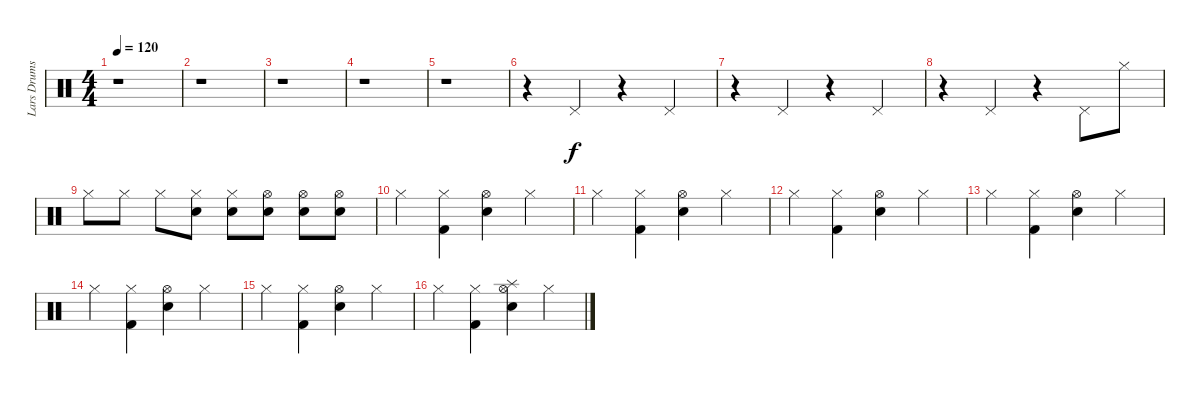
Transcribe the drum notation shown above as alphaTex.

\track ("Lars Drums" "Lars Drums") {instrument percussion}
\staff {score}
\articulation defaults
\ts (4 4)
\tempo 120
\clef neutral
\ks c
r.1{dy f} |
r.1 |
r.1 |
r.1 |
r.1 |
r.4 "Pedal Hi-Hat (hit)".4 r.4 "Pedal Hi-Hat (hit)".4 |
r.4 "Pedal Hi-Hat (hit)".4 r.4 "Pedal Hi-Hat (hit)".4 |
r.4 "Pedal Hi-Hat (hit)".4 r.4 "Pedal Hi-Hat (hit)".8 "Hi-Hat (closed)".8 |
"Hi-Hat (closed)".8 "Hi-Hat (closed)".8 "Hi-Hat (closed)".8 ("Snare (hit) 2" "Hi-Hat (closed)").8 ("Snare (hit) 2" "Hi-Hat (closed)").8 ("Snare (hit) 2" "Hi-Hat (open)").8 ("Snare (hit) 2" "Hi-Hat (open)").8 ("Snare (hit) 2" "Hi-Hat (open)").8 |
"Hi-Hat (closed)".4 ("Hi-Hat (closed)" "Kick (hit) 2").4 ("Snare (hit) 2" "Hi-Hat (open)").4 "Hi-Hat (closed)".4 |
"Hi-Hat (closed)".4 ("Hi-Hat (closed)" "Kick (hit) 2").4 ("Snare (hit) 2" "Hi-Hat (open)").4 "Hi-Hat (closed)".4 |
"Hi-Hat (closed)".4 ("Hi-Hat (closed)" "Kick (hit) 2").4 ("Snare (hit) 2" "Hi-Hat (open)").4 "Hi-Hat (closed)".4 |
"Hi-Hat (closed)".4 ("Hi-Hat (closed)" "Kick (hit) 2").4 ("Snare (hit) 2" "Hi-Hat (open)").4 "Hi-Hat (closed)".4 |
"Hi-Hat (closed)".4 ("Hi-Hat (closed)" "Kick (hit) 2").4 ("Snare (hit) 2" "Hi-Hat (open)").4 "Hi-Hat (closed)".4 |
"Hi-Hat (closed)".4 ("Hi-Hat (closed)" "Kick (hit) 2").4 ("Snare (hit) 2" "Hi-Hat (open)").4 "Hi-Hat (closed)".4 |
"Hi-Hat (closed)".4 ("Hi-Hat (closed)" "Kick (hit) 2").4 ("Splash (hit)" "Snare (hit) 2" "Hi-Hat (open)").4 "Hi-Hat (closed)".4
